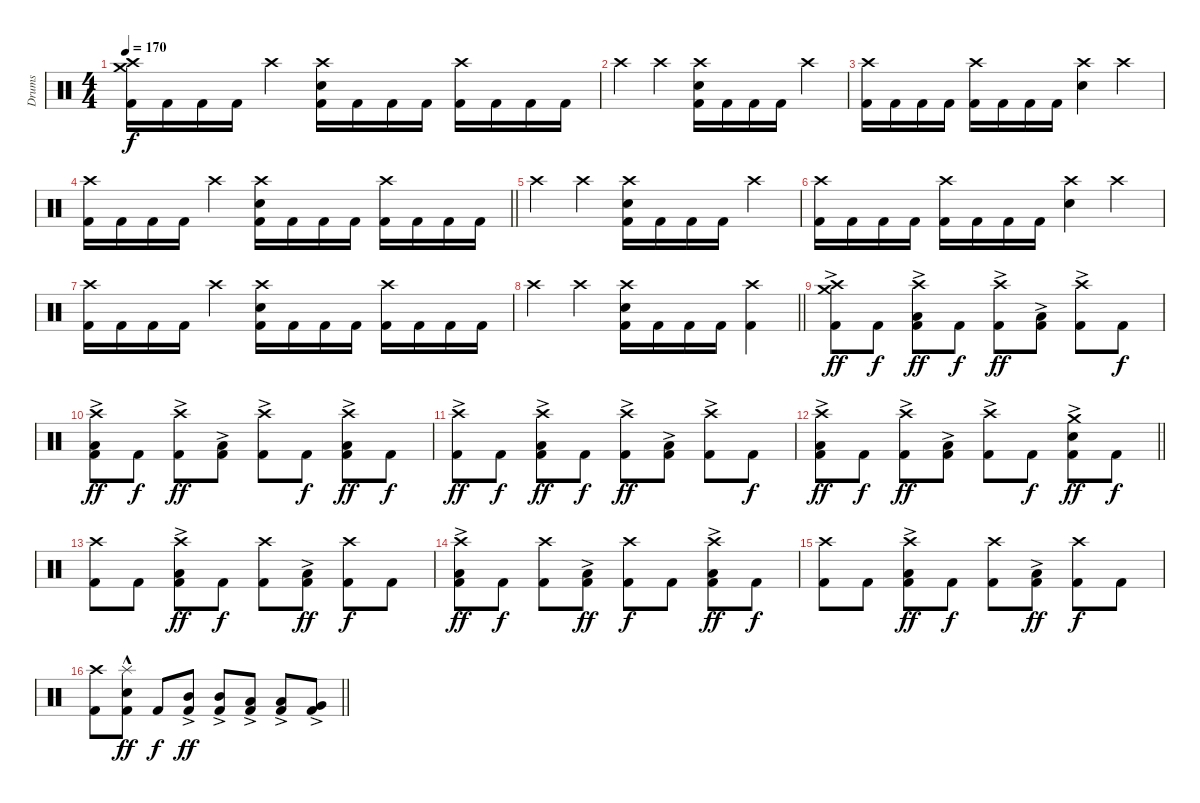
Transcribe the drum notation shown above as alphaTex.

\track ("Drums" "Drums") {instrument percussion}
\staff {score}
\articulation defaults
\ts (4 4)
\tempo 170
\clef neutral
\ks c
("Crash high (hit)" "Crash medium (hit)" "Kick (hit) 2").16{dy f} "Kick (hit) 2".16 "Kick (hit) 2".16 "Kick (hit) 2".16 "Crash high (hit)".4 ("Crash high (hit)" "Electric Snare (hit)" "Kick (hit) 2").16 "Kick (hit) 2".16 "Kick (hit) 2".16 "Kick (hit) 2".16 ("Crash high (hit)" "Kick (hit) 2").16 "Kick (hit) 2".16 "Kick (hit) 2".16 "Kick (hit) 2".16 |
"Crash high (hit)".4 "Crash high (hit)".4 ("Crash high (hit)" "Electric Snare (hit)" "Kick (hit) 2").16 "Kick (hit) 2".16 "Kick (hit) 2".16 "Kick (hit) 2".16 "Crash high (hit)".4 |
("Crash high (hit)" "Kick (hit) 2").16 "Kick (hit) 2".16 "Kick (hit) 2".16 "Kick (hit) 2".16 ("Crash high (hit)" "Kick (hit) 2").16 "Kick (hit) 2".16 "Kick (hit) 2".16 "Kick (hit) 2".16 ("Crash high (hit)" "Electric Snare (hit)").4 "Crash high (hit)".4 |
\barLineRight lightlight
("Crash high (hit)" "Kick (hit) 2").16 "Kick (hit) 2".16 "Kick (hit) 2".16 "Kick (hit) 2".16 "Crash high (hit)".4 ("Crash high (hit)" "Electric Snare (hit)" "Kick (hit) 2").16 "Kick (hit) 2".16 "Kick (hit) 2".16 "Kick (hit) 2".16 ("Crash high (hit)" "Kick (hit) 2").16 "Kick (hit) 2".16 "Kick (hit) 2".16 "Kick (hit) 2".16 |
"Crash high (hit)".4 "Crash high (hit)".4 ("Crash high (hit)" "Electric Snare (hit)" "Kick (hit) 2").16 "Kick (hit) 2".16 "Kick (hit) 2".16 "Kick (hit) 2".16 "Crash high (hit)".4 |
("Crash high (hit)" "Kick (hit) 2").16 "Kick (hit) 2".16 "Kick (hit) 2".16 "Kick (hit) 2".16 ("Crash high (hit)" "Kick (hit) 2").16 "Kick (hit) 2".16 "Kick (hit) 2".16 "Kick (hit) 2".16 ("Crash high (hit)" "Electric Snare (hit)").4 "Crash high (hit)".4 |
("Crash high (hit)" "Kick (hit) 2").16 "Kick (hit) 2".16 "Kick (hit) 2".16 "Kick (hit) 2".16 "Crash high (hit)".4 ("Crash high (hit)" "Electric Snare (hit)" "Kick (hit) 2").16 "Kick (hit) 2".16 "Kick (hit) 2".16 "Kick (hit) 2".16 ("Crash high (hit)" "Kick (hit) 2").16 "Kick (hit) 2".16 "Kick (hit) 2".16 "Kick (hit) 2".16 |
\barLineRight lightlight "Crash high (hit)".4 "Crash high (hit)".4
("Crash high (hit)" "Electric Snare (hit)" "Kick (hit) 2").16 "Kick (hit) 2".16 "Kick (hit) 2".16 "Kick (hit) 2".16 ("Crash high (hit)" "Kick (hit) 2").4 |
("Crash high (hit)"{ac} "Crash medium (hit)" "Kick (hit) 2").8{dy ff} "Kick (hit) 2".8{dy f} ("Crash high (hit)"{ac} "Low Tom (hit)"{ac} "Kick (hit) 2").8{dy ff} "Kick (hit) 2".8{dy f} ("Crash high (hit)"{ac} "Kick (hit) 2").8{dy ff} ("Low Tom (hit)"{ac} "Kick (hit) 2").8 ("Crash high (hit)"{ac} "Kick (hit) 2").8 "Kick (hit) 2".8{dy f} |
("Crash high (hit)"{ac} "Low Tom (hit)"{ac} "Kick (hit) 2").8{dy ff} "Kick (hit) 2".8{dy f} ("Crash high (hit)"{ac} "Kick (hit) 2").8{dy ff} ("Low Tom (hit)"{ac} "Kick (hit) 2").8 ("Crash high (hit)"{ac} "Kick (hit) 2").8 "Kick (hit) 2".8{dy f} ("Crash high (hit)"{ac} "Low Tom (hit)"{ac} "Kick (hit) 2").8{dy ff} "Kick (hit) 2".8{dy f} |
("Crash high (hit)"{ac} "Kick (hit) 2").8{dy ff} "Kick (hit) 2".8{dy f} ("Crash high (hit)"{ac} "Low Tom (hit)"{ac} "Kick (hit) 2").8{dy ff} "Kick (hit) 2".8{dy f} ("Crash high (hit)"{ac} "Kick (hit) 2").8{dy ff} ("Low Tom (hit)"{ac} "Kick (hit) 2").8 ("Crash high (hit)"{ac} "Kick (hit) 2").8 "Kick (hit) 2".8{dy f} |
\barLineRight lightlight
("Crash high (hit)"{ac} "Low Tom (hit)"{ac} "Kick (hit) 2").8{dy ff} "Kick (hit) 2".8{dy f} ("Crash high (hit)"{ac} "Kick (hit) 2").8{dy ff} ("Low Tom (hit)"{ac} "Kick (hit) 2").8 ("Crash high (hit)"{ac} "Kick (hit) 2").8 "Kick (hit) 2".8{dy f} ("Crash medium (hit)"{ac} "Electric Snare (hit)"{ac} "Kick (hit) 2").8{dy ff} "Kick (hit) 2".8{dy f} |
("Crash high (hit)" "Kick (hit) 2").8 "Kick (hit) 2".8 ("Crash high (hit)" "Low Tom (hit)"{ac} "Kick (hit) 2").8{dy ff} "Kick (hit) 2".8{dy f} ("Crash high (hit)" "Kick (hit) 2").8 ("Low Tom (hit)"{ac} "Kick (hit) 2").8{dy ff} ("Crash high (hit)" "Kick (hit) 2").8{dy f} "Kick (hit) 2".8 |
("Crash high (hit)" "Low Tom (hit)"{ac} "Kick (hit) 2").8{dy ff} "Kick (hit) 2".8{dy f} ("Crash high (hit)" "Kick (hit) 2").8 ("Low Tom (hit)"{ac} "Kick (hit) 2").8{dy ff} ("Crash high (hit)" "Kick (hit) 2").8{dy f} "Kick (hit) 2".8 ("Crash high (hit)" "Low Tom (hit)"{ac} "Kick (hit) 2").8{dy ff} "Kick (hit) 2".8{dy f} |
("Crash high (hit)" "Kick (hit) 2").8 "Kick (hit) 2".8 ("Crash high (hit)" "Low Tom (hit)"{ac} "Kick (hit) 2").8{dy ff} "Kick (hit) 2".8{dy f} ("Crash high (hit)" "Kick (hit) 2").8 ("Low Tom (hit)"{ac} "Kick (hit) 2").8{dy ff} ("Crash high (hit)" "Kick (hit) 2").8{dy f} "Kick (hit) 2".8 |
\barLineRight lightlight
("Crash high (hit)" "Kick (hit) 2").8 ("Splash (hit)"{hac} "Electric Snare (hit)"{hac} "Kick (hit) 2").8{dy ff} "Kick (hit) 2".8{dy f} ("Mid Tom (hit)"{ac} "Kick (hit) 2").8{dy ff} ("Mid Tom (hit)"{ac} "Kick (hit) 2").8 ("Low Tom (hit)"{ac} "Kick (hit) 2").8 ("Low Tom (hit)"{ac} "Kick (hit) 2").8 ("Very Low Tom (hit)"{ac} "Kick (hit) 2").8
